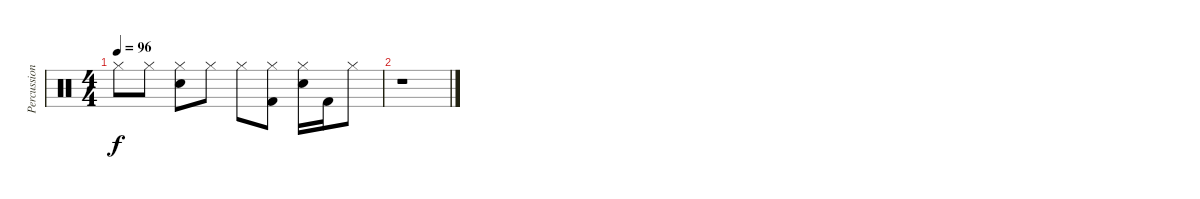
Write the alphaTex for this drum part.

\track ("Percussion" "Percussion") {instrument percussion}
\staff {score}
\articulation defaults
\ts (4 4)
\tempo 96
\clef neutral
\ks c "Hi-Hat (closed)".8{dy f} "Hi-Hat (closed)".8
("Hi-Hat (closed)" "Snare (hit) 2").8 "Hi-Hat (closed)".8 "Hi-Hat (closed)".8 ("Hi-Hat (closed)" "Kick (hit) 2").8 ("Hi-Hat (closed)" "Snare (hit) 2").16 "Kick (hit) 2".16 "Hi-Hat (closed)".8 |
r.1
